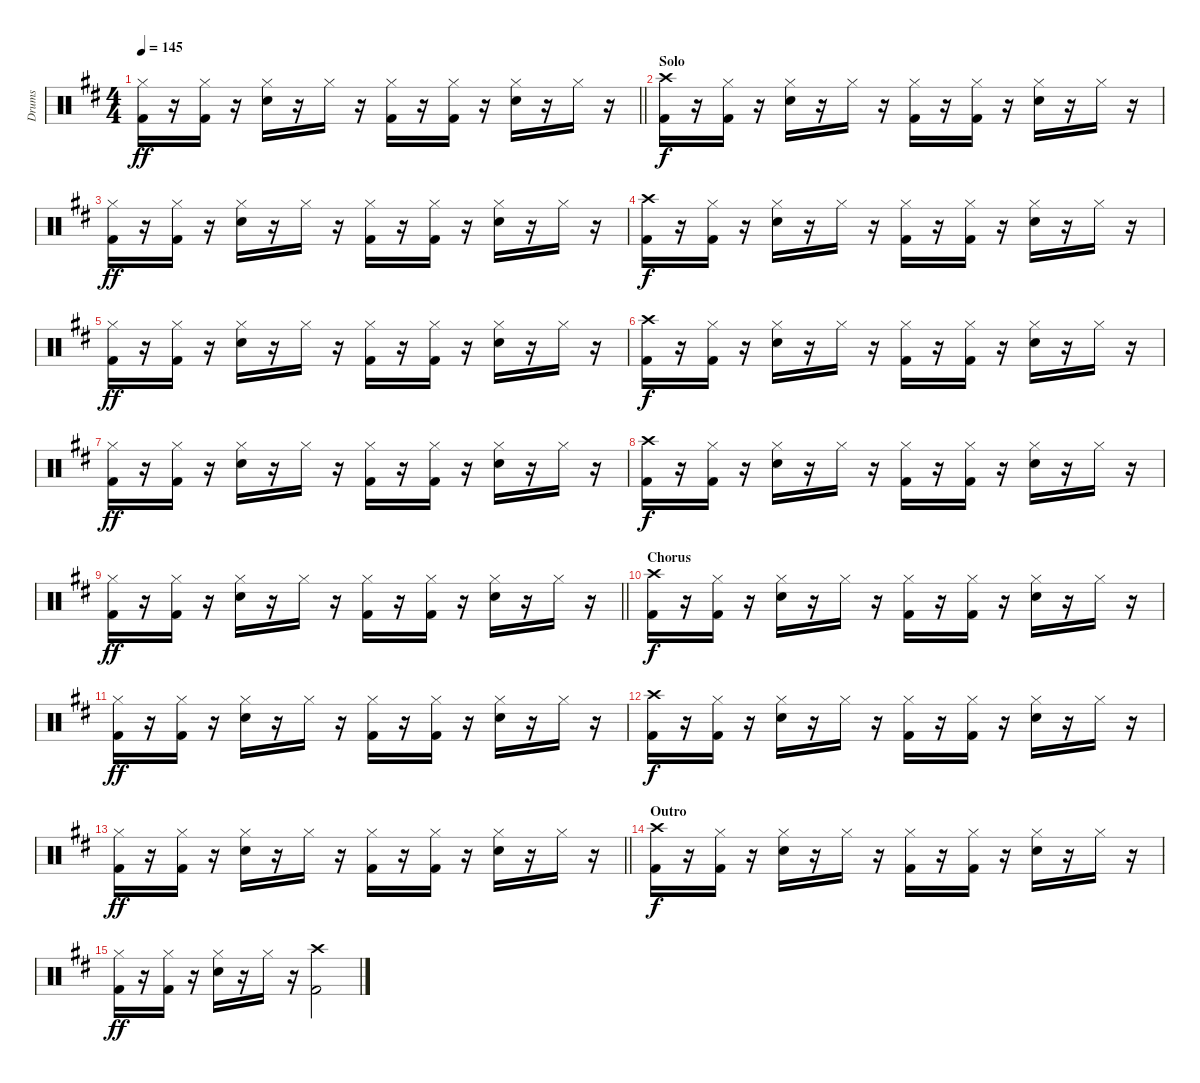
\track ("Drums" "Drums") {instrument percussion}
\staff {score}
\articulation defaults
\ts (4 4)
\tempo 145
\clef neutral
\barLineRight lightlight
\ks d
("Hi-Hat (closed)" "Kick (hit) 2").16{dy ff} r.16 ("Hi-Hat (closed)" "Kick (hit) 2").16 r.16 ("Hi-Hat (closed)" "Snare (hit) 2").16 r.16 "Hi-Hat (closed)".16 r.16 ("Hi-Hat (closed)" "Kick (hit) 2").16 r.16 ("Hi-Hat (closed)" "Kick (hit) 2").16 r.16 ("Hi-Hat (closed)" "Snare (hit) 2").16 r.16 "Hi-Hat (closed)".16 r.16 |
\section ("" "Solo")
("Crash high (hit)" "Kick (hit) 2").16{dy f} r.16 ("Hi-Hat (closed)" "Kick (hit) 2").16 r.16 ("Hi-Hat (closed)" "Snare (hit) 2").16 r.16 "Hi-Hat (closed)".16 r.16 ("Hi-Hat (closed)" "Kick (hit) 2").16 r.16 ("Hi-Hat (closed)" "Kick (hit) 2").16 r.16 ("Hi-Hat (closed)" "Snare (hit) 2").16 r.16 "Hi-Hat (closed)".16 r.16 |
("Hi-Hat (closed)" "Kick (hit) 2").16{dy ff} r.16 ("Hi-Hat (closed)" "Kick (hit) 2").16 r.16 ("Hi-Hat (closed)" "Snare (hit) 2").16 r.16 "Hi-Hat (closed)".16 r.16 ("Hi-Hat (closed)" "Kick (hit) 2").16 r.16 ("Hi-Hat (closed)" "Kick (hit) 2").16 r.16 ("Hi-Hat (closed)" "Snare (hit) 2").16 r.16 "Hi-Hat (closed)".16 r.16 |
("Crash high (hit)" "Kick (hit) 2").16{dy f} r.16 ("Hi-Hat (closed)" "Kick (hit) 2").16 r.16 ("Hi-Hat (closed)" "Snare (hit) 2").16 r.16 "Hi-Hat (closed)".16 r.16 ("Hi-Hat (closed)" "Kick (hit) 2").16 r.16 ("Hi-Hat (closed)" "Kick (hit) 2").16 r.16 ("Hi-Hat (closed)" "Snare (hit) 2").16 r.16 "Hi-Hat (closed)".16 r.16 |
("Hi-Hat (closed)" "Kick (hit) 2").16{dy ff} r.16 ("Hi-Hat (closed)" "Kick (hit) 2").16 r.16 ("Hi-Hat (closed)" "Snare (hit) 2").16 r.16 "Hi-Hat (closed)".16 r.16 ("Hi-Hat (closed)" "Kick (hit) 2").16 r.16 ("Hi-Hat (closed)" "Kick (hit) 2").16 r.16 ("Hi-Hat (closed)" "Snare (hit) 2").16 r.16 "Hi-Hat (closed)".16 r.16 |
("Crash high (hit)" "Kick (hit) 2").16{dy f} r.16 ("Hi-Hat (closed)" "Kick (hit) 2").16 r.16 ("Hi-Hat (closed)" "Snare (hit) 2").16 r.16 "Hi-Hat (closed)".16 r.16 ("Hi-Hat (closed)" "Kick (hit) 2").16 r.16 ("Hi-Hat (closed)" "Kick (hit) 2").16 r.16 ("Hi-Hat (closed)" "Snare (hit) 2").16 r.16 "Hi-Hat (closed)".16 r.16 |
("Hi-Hat (closed)" "Kick (hit) 2").16{dy ff} r.16 ("Hi-Hat (closed)" "Kick (hit) 2").16 r.16 ("Hi-Hat (closed)" "Snare (hit) 2").16 r.16 "Hi-Hat (closed)".16 r.16 ("Hi-Hat (closed)" "Kick (hit) 2").16 r.16 ("Hi-Hat (closed)" "Kick (hit) 2").16 r.16 ("Hi-Hat (closed)" "Snare (hit) 2").16 r.16 "Hi-Hat (closed)".16 r.16 |
("Crash high (hit)" "Kick (hit) 2").16{dy f} r.16 ("Hi-Hat (closed)" "Kick (hit) 2").16 r.16 ("Hi-Hat (closed)" "Snare (hit) 2").16 r.16 "Hi-Hat (closed)".16 r.16 ("Hi-Hat (closed)" "Kick (hit) 2").16 r.16 ("Hi-Hat (closed)" "Kick (hit) 2").16 r.16 ("Hi-Hat (closed)" "Snare (hit) 2").16 r.16 "Hi-Hat (closed)".16 r.16 |
\barLineRight lightlight
("Hi-Hat (closed)" "Kick (hit) 2").16{dy ff} r.16 ("Hi-Hat (closed)" "Kick (hit) 2").16 r.16 ("Hi-Hat (closed)" "Snare (hit) 2").16 r.16 "Hi-Hat (closed)".16 r.16 ("Hi-Hat (closed)" "Kick (hit) 2").16 r.16 ("Hi-Hat (closed)" "Kick (hit) 2").16 r.16 ("Hi-Hat (closed)" "Snare (hit) 2").16 r.16 "Hi-Hat (closed)".16 r.16 |
\section ("" "Chorus")
("Crash high (hit)" "Kick (hit) 2").16{dy f} r.16 ("Hi-Hat (closed)" "Kick (hit) 2").16 r.16 ("Hi-Hat (closed)" "Snare (hit) 2").16 r.16 "Hi-Hat (closed)".16 r.16 ("Hi-Hat (closed)" "Kick (hit) 2").16 r.16 ("Hi-Hat (closed)" "Kick (hit) 2").16 r.16 ("Hi-Hat (closed)" "Snare (hit) 2").16 r.16 "Hi-Hat (closed)".16 r.16 |
("Hi-Hat (closed)" "Kick (hit) 2").16{dy ff} r.16 ("Hi-Hat (closed)" "Kick (hit) 2").16 r.16 ("Hi-Hat (closed)" "Snare (hit) 2").16 r.16 "Hi-Hat (closed)".16 r.16 ("Hi-Hat (closed)" "Kick (hit) 2").16 r.16 ("Hi-Hat (closed)" "Kick (hit) 2").16 r.16 ("Hi-Hat (closed)" "Snare (hit) 2").16 r.16 "Hi-Hat (closed)".16 r.16 |
("Crash high (hit)" "Kick (hit) 2").16{dy f} r.16 ("Hi-Hat (closed)" "Kick (hit) 2").16 r.16 ("Hi-Hat (closed)" "Snare (hit) 2").16 r.16 "Hi-Hat (closed)".16 r.16 ("Hi-Hat (closed)" "Kick (hit) 2").16 r.16 ("Hi-Hat (closed)" "Kick (hit) 2").16 r.16 ("Hi-Hat (closed)" "Snare (hit) 2").16 r.16 "Hi-Hat (closed)".16 r.16 |
\barLineRight lightlight
("Hi-Hat (closed)" "Kick (hit) 2").16{dy ff} r.16 ("Hi-Hat (closed)" "Kick (hit) 2").16 r.16 ("Hi-Hat (closed)" "Snare (hit) 2").16 r.16 "Hi-Hat (closed)".16 r.16 ("Hi-Hat (closed)" "Kick (hit) 2").16 r.16 ("Hi-Hat (closed)" "Kick (hit) 2").16 r.16 ("Hi-Hat (closed)" "Snare (hit) 2").16 r.16 "Hi-Hat (closed)".16 r.16 |
\section ("" "Outro")
("Crash high (hit)" "Kick (hit) 2").16{dy f} r.16 ("Hi-Hat (closed)" "Kick (hit) 2").16 r.16 ("Hi-Hat (closed)" "Snare (hit) 2").16 r.16 "Hi-Hat (closed)".16 r.16 ("Hi-Hat (closed)" "Kick (hit) 2").16 r.16 ("Hi-Hat (closed)" "Kick (hit) 2").16 r.16 ("Hi-Hat (closed)" "Snare (hit) 2").16 r.16 "Hi-Hat (closed)".16 r.16 |
("Hi-Hat (closed)" "Kick (hit) 2").16{dy ff} r.16 ("Hi-Hat (closed)" "Kick (hit) 2").16 r.16 ("Hi-Hat (closed)" "Snare (hit) 2").16 r.16 "Hi-Hat (closed)".16 r.16 ("Crash high (hit)" "Kick (hit) 2").2
